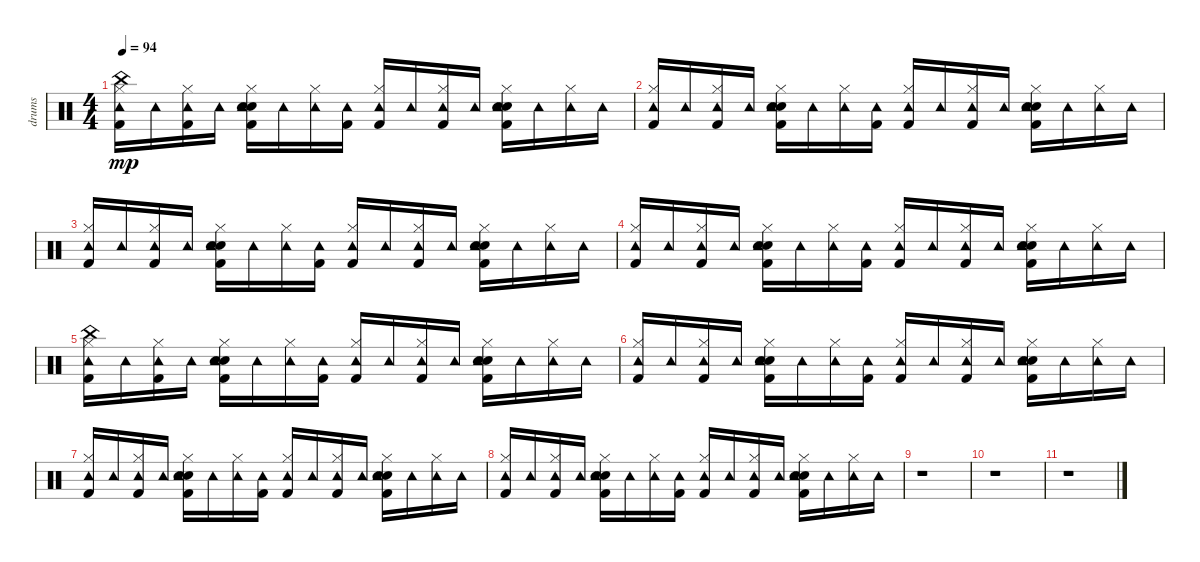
\track ("drums" "drums") {instrument percussion}
\staff {score}
\articulation defaults
\ts (4 4)
\tempo 94
\clef neutral
\ks c
("Kick (hit) 2" "Hi-Hat (closed)" "Tambourine (hit)" "China (hit)").16{dy mp} "Tambourine (hit)".16 ("Kick (hit) 2" "Hi-Hat (closed)" "Tambourine (hit)").16 "Tambourine (hit)".16 ("Kick (hit) 2" "Snare (hit) 2" "Hi-Hat (closed)" "Hand Clap (hit)" "Tambourine (hit)").16 "Tambourine (hit)".16 ("Hi-Hat (closed)" "Tambourine (hit)").16 ("Kick (hit) 2" "Tambourine (hit)").16 ("Kick (hit) 2" "Hi-Hat (closed)" "Tambourine (hit)").16 "Tambourine (hit)".16 ("Kick (hit) 2" "Hi-Hat (closed)" "Tambourine (hit)").16 "Tambourine (hit)".16 ("Kick (hit) 2" "Snare (hit) 2" "Hi-Hat (closed)" "Hand Clap (hit)" "Tambourine (hit)").16 "Tambourine (hit)".16 ("Hi-Hat (closed)" "Tambourine (hit)").16 "Tambourine (hit)".16 |
("Kick (hit) 2" "Hi-Hat (closed)" "Tambourine (hit)").16 "Tambourine (hit)".16 ("Kick (hit) 2" "Hi-Hat (closed)" "Tambourine (hit)").16 "Tambourine (hit)".16 ("Kick (hit) 2" "Snare (hit) 2" "Hi-Hat (closed)" "Hand Clap (hit)" "Tambourine (hit)").16 "Tambourine (hit)".16 ("Hi-Hat (closed)" "Tambourine (hit)").16 ("Kick (hit) 2" "Tambourine (hit)").16 ("Kick (hit) 2" "Hi-Hat (closed)" "Tambourine (hit)").16 "Tambourine (hit)".16 ("Kick (hit) 2" "Hi-Hat (closed)" "Tambourine (hit)").16 "Tambourine (hit)".16 ("Kick (hit) 2" "Snare (hit) 2" "Hi-Hat (closed)" "Hand Clap (hit)" "Tambourine (hit)").16 "Tambourine (hit)".16 ("Hi-Hat (closed)" "Tambourine (hit)").16 "Tambourine (hit)".16 |
("Kick (hit) 2" "Hi-Hat (closed)" "Tambourine (hit)").16 "Tambourine (hit)".16 ("Kick (hit) 2" "Hi-Hat (closed)" "Tambourine (hit)").16 "Tambourine (hit)".16 ("Kick (hit) 2" "Snare (hit) 2" "Hi-Hat (closed)" "Hand Clap (hit)" "Tambourine (hit)").16 "Tambourine (hit)".16 ("Hi-Hat (closed)" "Tambourine (hit)").16 ("Kick (hit) 2" "Tambourine (hit)").16 ("Kick (hit) 2" "Hi-Hat (closed)" "Tambourine (hit)").16 "Tambourine (hit)".16 ("Kick (hit) 2" "Hi-Hat (closed)" "Tambourine (hit)").16 "Tambourine (hit)".16 ("Kick (hit) 2" "Snare (hit) 2" "Hi-Hat (closed)" "Hand Clap (hit)" "Tambourine (hit)").16 "Tambourine (hit)".16 ("Hi-Hat (closed)" "Tambourine (hit)").16 "Tambourine (hit)".16 |
("Kick (hit) 2" "Hi-Hat (closed)" "Tambourine (hit)").16 "Tambourine (hit)".16 ("Kick (hit) 2" "Hi-Hat (closed)" "Tambourine (hit)").16 "Tambourine (hit)".16 ("Kick (hit) 2" "Snare (hit) 2" "Hi-Hat (closed)" "Hand Clap (hit)" "Tambourine (hit)").16 "Tambourine (hit)".16 ("Hi-Hat (closed)" "Tambourine (hit)").16 ("Kick (hit) 2" "Tambourine (hit)").16 ("Kick (hit) 2" "Hi-Hat (closed)" "Tambourine (hit)").16 "Tambourine (hit)".16 ("Kick (hit) 2" "Hi-Hat (closed)" "Tambourine (hit)").16 "Tambourine (hit)".16 ("Kick (hit) 2" "Snare (hit) 2" "Hi-Hat (closed)" "Hand Clap (hit)" "Tambourine (hit)").16 "Tambourine (hit)".16 ("Hi-Hat (closed)" "Tambourine (hit)").16 "Tambourine (hit)".16 |
("Kick (hit) 2" "Hi-Hat (closed)" "Tambourine (hit)" "China (hit)").16 "Tambourine (hit)".16 ("Kick (hit) 2" "Hi-Hat (closed)" "Tambourine (hit)").16 "Tambourine (hit)".16 ("Kick (hit) 2" "Snare (hit) 2" "Hi-Hat (closed)" "Hand Clap (hit)" "Tambourine (hit)").16 "Tambourine (hit)".16 ("Hi-Hat (closed)" "Tambourine (hit)").16 ("Kick (hit) 2" "Tambourine (hit)").16 ("Kick (hit) 2" "Hi-Hat (closed)" "Tambourine (hit)").16 "Tambourine (hit)".16 ("Kick (hit) 2" "Hi-Hat (closed)" "Tambourine (hit)").16 "Tambourine (hit)".16 ("Kick (hit) 2" "Snare (hit) 2" "Hi-Hat (closed)" "Hand Clap (hit)" "Tambourine (hit)").16 "Tambourine (hit)".16 ("Hi-Hat (closed)" "Tambourine (hit)").16 "Tambourine (hit)".16 |
("Kick (hit) 2" "Hi-Hat (closed)" "Tambourine (hit)").16 "Tambourine (hit)".16 ("Kick (hit) 2" "Hi-Hat (closed)" "Tambourine (hit)").16 "Tambourine (hit)".16 ("Kick (hit) 2" "Snare (hit) 2" "Hi-Hat (closed)" "Hand Clap (hit)" "Tambourine (hit)").16 "Tambourine (hit)".16 ("Hi-Hat (closed)" "Tambourine (hit)").16 ("Kick (hit) 2" "Tambourine (hit)").16 ("Kick (hit) 2" "Hi-Hat (closed)" "Tambourine (hit)").16 "Tambourine (hit)".16 ("Kick (hit) 2" "Hi-Hat (closed)" "Tambourine (hit)").16 "Tambourine (hit)".16 ("Kick (hit) 2" "Snare (hit) 2" "Hi-Hat (closed)" "Hand Clap (hit)" "Tambourine (hit)").16 "Tambourine (hit)".16 ("Hi-Hat (closed)" "Tambourine (hit)").16 "Tambourine (hit)".16 |
("Kick (hit) 2" "Hi-Hat (closed)" "Tambourine (hit)").16 "Tambourine (hit)".16 ("Kick (hit) 2" "Hi-Hat (closed)" "Tambourine (hit)").16 "Tambourine (hit)".16 ("Kick (hit) 2" "Snare (hit) 2" "Hi-Hat (closed)" "Hand Clap (hit)" "Tambourine (hit)").16 "Tambourine (hit)".16 ("Hi-Hat (closed)" "Tambourine (hit)").16 ("Kick (hit) 2" "Tambourine (hit)").16 ("Kick (hit) 2" "Hi-Hat (closed)" "Tambourine (hit)").16 "Tambourine (hit)".16 ("Kick (hit) 2" "Hi-Hat (closed)" "Tambourine (hit)").16 "Tambourine (hit)".16 ("Kick (hit) 2" "Snare (hit) 2" "Hi-Hat (closed)" "Hand Clap (hit)" "Tambourine (hit)").16 "Tambourine (hit)".16 ("Hi-Hat (closed)" "Tambourine (hit)").16 "Tambourine (hit)".16 |
("Kick (hit) 2" "Hi-Hat (closed)" "Tambourine (hit)").16 "Tambourine (hit)".16 ("Kick (hit) 2" "Hi-Hat (closed)" "Tambourine (hit)").16 "Tambourine (hit)".16 ("Kick (hit) 2" "Snare (hit) 2" "Hi-Hat (closed)" "Hand Clap (hit)" "Tambourine (hit)").16 "Tambourine (hit)".16 ("Hi-Hat (closed)" "Tambourine (hit)").16 ("Kick (hit) 2" "Tambourine (hit)").16 ("Kick (hit) 2" "Hi-Hat (closed)" "Tambourine (hit)").16 "Tambourine (hit)".16 ("Kick (hit) 2" "Hi-Hat (closed)" "Tambourine (hit)").16 "Tambourine (hit)".16 ("Kick (hit) 2" "Snare (hit) 2" "Hi-Hat (closed)" "Hand Clap (hit)" "Tambourine (hit)").16 "Tambourine (hit)".16 ("Hi-Hat (closed)" "Tambourine (hit)").16 "Tambourine (hit)".16 |
r.1 |
r.1 |
r.1
